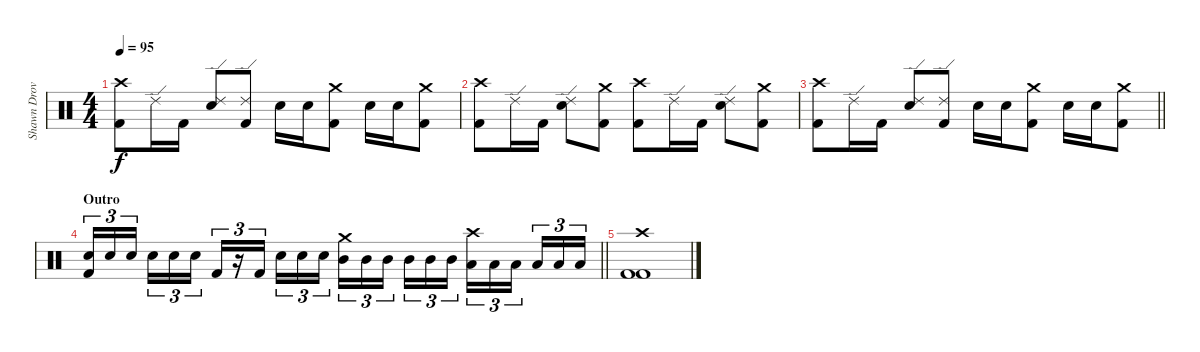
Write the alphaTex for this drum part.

\track ("Shawn Drover" "Shawn Drov") {instrument percussion}
\staff {score}
\articulation defaults
\ts (4 4)
\tempo 95
\clef neutral
\ks c
("Crash high (hit)" "Kick (hit) 2").8{dy f} "Ride (edge) 2".16 "Kick (hit) 2".16 ("Ride (edge) 2" "Electric Snare (hit)").8 ("Ride (edge) 2" "Kick (hit) 2").8 "Electric Snare (hit)".16 "Electric Snare (hit)".16 ("Crash medium (hit)" "Kick (hit) 2").8 "Electric Snare (hit)".16 "Electric Snare (hit)".16 ("Crash medium (hit)" "Kick (hit) 2").8 |
("Crash high (hit)" "Kick (hit) 2").8 "Ride (edge) 2".16 "Kick (hit) 2".16 ("Ride (edge) 2" "Electric Snare (hit)").8 ("Crash medium (hit)" "Kick (hit) 2").8 ("Crash high (hit)" "Kick (hit) 2").8 "Ride (edge) 2".16 "Kick (hit) 2".16 ("Ride (edge) 2" "Electric Snare (hit)").8 ("Crash medium (hit)" "Kick (hit) 2").8 |
\barLineRight lightlight
("Crash high (hit)" "Kick (hit) 2").8 "Ride (edge) 2".16 "Kick (hit) 2".16 ("Ride (edge) 2" "Electric Snare (hit)").8 ("Ride (edge) 2" "Kick (hit) 2").8 "Electric Snare (hit)".16 "Electric Snare (hit)".16 ("Crash medium (hit)" "Kick (hit) 2").8 "Electric Snare (hit)".16 "Electric Snare (hit)".16 ("Crash medium (hit)" "Kick (hit) 2").8 |
\section ("" "Outro")
\barLineRight lightlight
("Electric Snare (hit)" "Kick (hit) 2").16{tu (3 2)} "Electric Snare (hit)".16{tu (3 2)} "Electric Snare (hit)".16{tu (3 2) beam splitsecondary} "Electric Snare (hit)".16{tu (3 2)} "Electric Snare (hit)".16{tu (3 2)} "Electric Snare (hit)".16{tu (3 2)} "Kick (hit) 2".16{tu (3 2)} r.16{tu (3 2)} "Kick (hit) 2".16{tu (3 2) beam splitsecondary} "Electric Snare (hit)".16{tu (3 2)} "Electric Snare (hit)".16{tu (3 2)} "Electric Snare (hit)".16{tu (3 2)} ("Crash medium (hit)" "Mid Tom (hit)").16{tu (3 2)} "Mid Tom (hit)".16{tu (3 2)} "Mid Tom (hit)".16{tu (3 2) beam splitsecondary} "Mid Tom (hit)".16{tu (3 2)} "Mid Tom (hit)".16{tu (3 2)} "Mid Tom (hit)".16{tu (3 2)} ("Crash high (hit)" "Low Tom (hit)").16{tu (3 2)} "Low Tom (hit)".16{tu (3 2)} "Low Tom (hit)".16{tu (3 2) beam splitsecondary} "Low Tom (hit)".16{tu (3 2)} "Low Tom (hit)".16{tu (3 2)} "Low Tom (hit)".16{tu (3 2)} |
("Crash high (hit)" "Kick (hit) 2" "Kick (hit) 2").1
